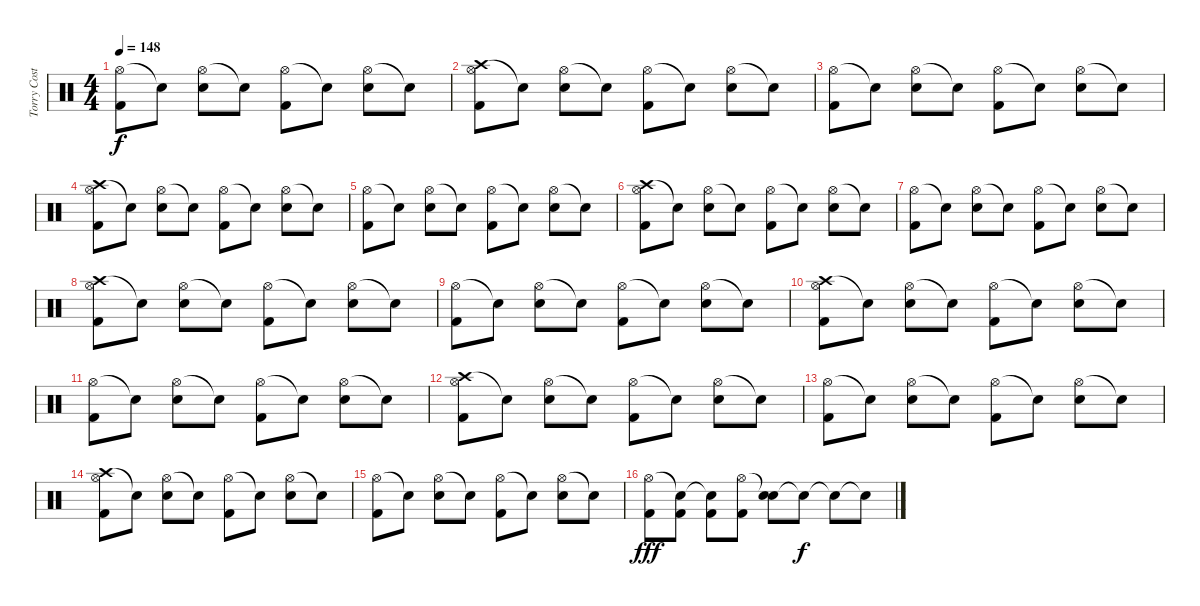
\track ("Torry Costellano" "Torry Cost") {instrument percussion bank 127}
\staff {score}
\articulation defaults
\ts (4 4)
\tempo 148
\clef neutral
\ks c
("Hi-Hat (open)" "Kick (hit) 2").8{dy f} "Snare (hit)"{t}.8 ("Hi-Hat (open)" "Electric Snare (hit)").8 "Snare (hit)"{t}.8 ("Hi-Hat (open)" "Kick (hit) 2").8 "Snare (hit)"{t}.8 ("Hi-Hat (open)" "Electric Snare (hit)").8 "Snare (hit)"{t}.8 |
("Crash high (hit)" "Hi-Hat (open)" "Kick (hit) 2").8 "Snare (hit)"{t}.8 ("Hi-Hat (open)" "Electric Snare (hit)").8 "Snare (hit)"{t}.8 ("Hi-Hat (open)" "Kick (hit) 2").8 "Snare (hit)"{t}.8 ("Hi-Hat (open)" "Electric Snare (hit)").8 "Snare (hit)"{t}.8 |
("Hi-Hat (open)" "Kick (hit) 2").8 "Snare (hit)"{t}.8 ("Hi-Hat (open)" "Electric Snare (hit)").8 "Snare (hit)"{t}.8 ("Hi-Hat (open)" "Kick (hit) 2").8 "Snare (hit)"{t}.8 ("Hi-Hat (open)" "Electric Snare (hit)").8 "Snare (hit)"{t}.8 |
("Crash high (hit)" "Hi-Hat (open)" "Kick (hit) 2").8 "Snare (hit)"{t}.8 ("Hi-Hat (open)" "Electric Snare (hit)").8 "Snare (hit)"{t}.8 ("Hi-Hat (open)" "Kick (hit) 2").8 "Snare (hit)"{t}.8 ("Hi-Hat (open)" "Electric Snare (hit)").8 "Snare (hit)"{t}.8 |
("Hi-Hat (open)" "Kick (hit) 2").8 "Snare (hit)"{t}.8 ("Hi-Hat (open)" "Electric Snare (hit)").8 "Snare (hit)"{t}.8 ("Hi-Hat (open)" "Kick (hit) 2").8 "Snare (hit)"{t}.8 ("Hi-Hat (open)" "Electric Snare (hit)").8 "Snare (hit)"{t}.8 |
("Crash high (hit)" "Hi-Hat (open)" "Kick (hit) 2").8 "Snare (hit)"{t}.8 ("Hi-Hat (open)" "Electric Snare (hit)").8 "Snare (hit)"{t}.8 ("Hi-Hat (open)" "Kick (hit) 2").8 "Snare (hit)"{t}.8 ("Hi-Hat (open)" "Electric Snare (hit)").8 "Snare (hit)"{t}.8 |
("Hi-Hat (open)" "Kick (hit) 2").8 "Snare (hit)"{t}.8 ("Hi-Hat (open)" "Electric Snare (hit)").8 "Snare (hit)"{t}.8 ("Hi-Hat (open)" "Kick (hit) 2").8 "Snare (hit)"{t}.8 ("Hi-Hat (open)" "Electric Snare (hit)").8 "Snare (hit)"{t}.8 |
("Crash high (hit)" "Hi-Hat (open)" "Kick (hit) 2").8 "Snare (hit)"{t}.8 ("Hi-Hat (open)" "Electric Snare (hit)").8 "Snare (hit)"{t}.8 ("Hi-Hat (open)" "Kick (hit) 2").8 "Snare (hit)"{t}.8 ("Hi-Hat (open)" "Electric Snare (hit)").8 "Snare (hit)"{t}.8 |
("Hi-Hat (open)" "Kick (hit) 2").8 "Snare (hit)"{t}.8 ("Hi-Hat (open)" "Electric Snare (hit)").8 "Snare (hit)"{t}.8 ("Hi-Hat (open)" "Kick (hit) 2").8 "Snare (hit)"{t}.8 ("Hi-Hat (open)" "Electric Snare (hit)").8 "Snare (hit)"{t}.8 |
("Crash high (hit)" "Hi-Hat (open)" "Kick (hit) 2").8 "Snare (hit)"{t}.8 ("Hi-Hat (open)" "Electric Snare (hit)").8 "Snare (hit)"{t}.8 ("Hi-Hat (open)" "Kick (hit) 2").8 "Snare (hit)"{t}.8 ("Hi-Hat (open)" "Electric Snare (hit)").8 "Snare (hit)"{t}.8 |
("Hi-Hat (open)" "Kick (hit) 2").8 "Snare (hit)"{t}.8 ("Hi-Hat (open)" "Electric Snare (hit)").8 "Snare (hit)"{t}.8 ("Hi-Hat (open)" "Kick (hit) 2").8 "Snare (hit)"{t}.8 ("Hi-Hat (open)" "Electric Snare (hit)").8 "Snare (hit)"{t}.8 |
("Crash high (hit)" "Hi-Hat (open)" "Kick (hit) 2").8 "Snare (hit)"{t}.8 ("Hi-Hat (open)" "Electric Snare (hit)").8 "Snare (hit)"{t}.8 ("Hi-Hat (open)" "Kick (hit) 2").8 "Snare (hit)"{t}.8 ("Hi-Hat (open)" "Electric Snare (hit)").8 "Snare (hit)"{t}.8 |
("Hi-Hat (open)" "Kick (hit) 2").8 "Snare (hit)"{t}.8 ("Hi-Hat (open)" "Electric Snare (hit)").8 "Snare (hit)"{t}.8 ("Hi-Hat (open)" "Kick (hit) 2").8 "Snare (hit)"{t}.8 ("Hi-Hat (open)" "Electric Snare (hit)").8 "Snare (hit)"{t}.8 |
("Crash high (hit)" "Hi-Hat (open)" "Kick (hit) 2").8 "Snare (hit)"{t}.8 ("Hi-Hat (open)" "Electric Snare (hit)").8 "Snare (hit)"{t}.8 ("Hi-Hat (open)" "Kick (hit) 2").8 "Snare (hit)"{t}.8 ("Hi-Hat (open)" "Electric Snare (hit)").8 "Snare (hit)"{t}.8 |
("Hi-Hat (open)" "Kick (hit) 2").8 "Snare (hit)"{t}.8 ("Hi-Hat (open)" "Electric Snare (hit)").8 "Snare (hit)"{t}.8 ("Hi-Hat (open)" "Kick (hit) 2").8 "Snare (hit)"{t}.8 ("Hi-Hat (open)" "Electric Snare (hit)").8 "Snare (hit)"{t}.8 |
("Hi-Hat (open)" "Kick (hit) 2").8{dy fff} ("Snare (hit)"{t} "Kick (hit) 2").8 ("Snare (hit)"{t} "Kick (hit) 2").8 ("Hi-Hat (open)" "Kick (hit) 2").8 ("Snare (hit)"{t} "Electric Snare (hit)").8 "Snare (hit)"{t}.8{dy f} "Snare (hit)"{t}.8 "Snare (hit)"{t}.8
